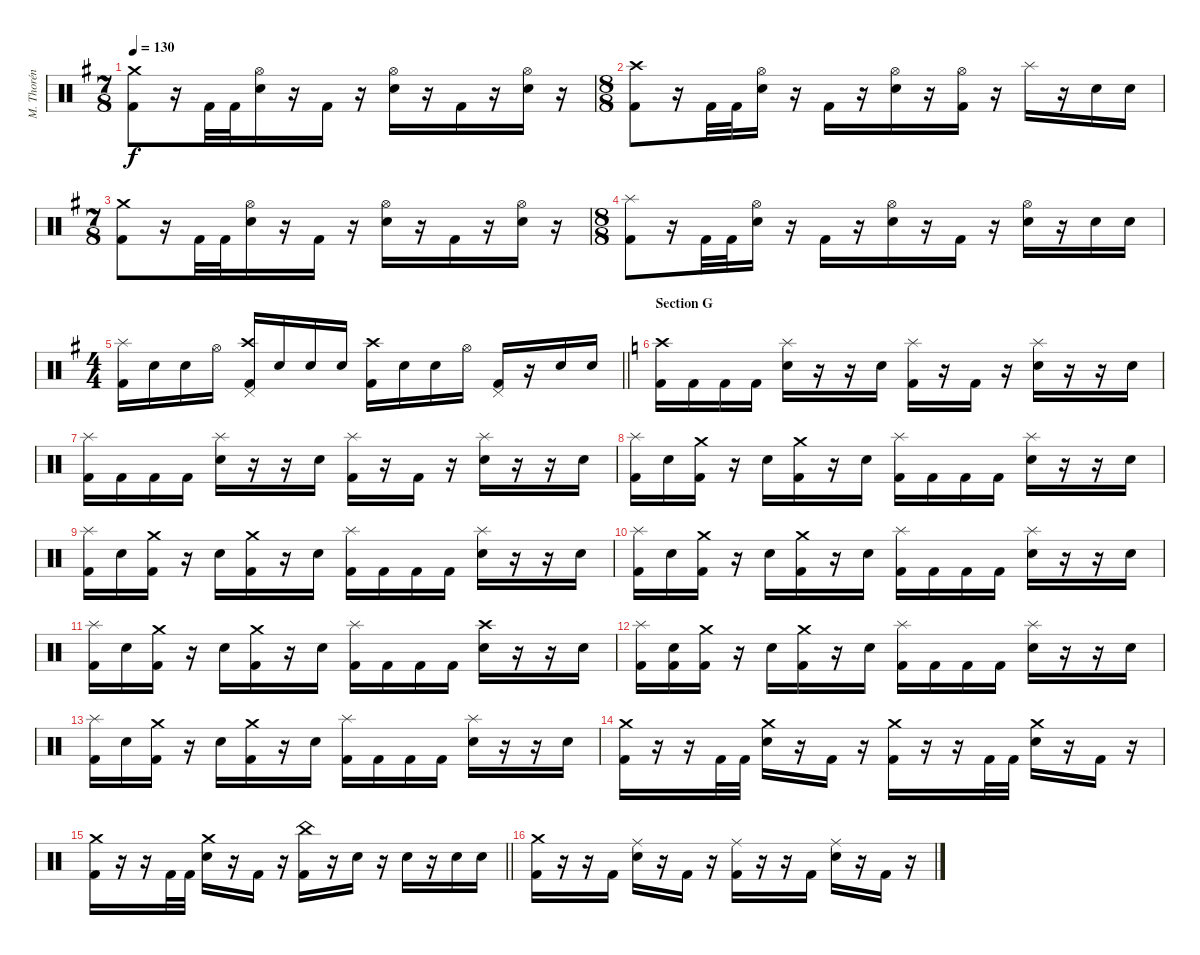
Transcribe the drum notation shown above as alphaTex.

\track ("M. Thorén (Drums)" "M. Thorén ") {instrument percussion}
\staff {score}
\articulation defaults
\ts (7 8)
\tempo 130
\clef neutral
\ks eminor
("Crash medium (hit)" "Kick (hit) 2").8{dy f} r.16 "Kick (hit) 2".32 "Kick (hit) 2".32 ("Hi-Hat (open)" "Electric Snare (hit)").16 r.16 "Kick (hit) 2".16 r.16 ("Hi-Hat (open)" "Electric Snare (hit)").16 r.16 "Kick (hit) 2".16 r.16 ("Hi-Hat (open)" "Electric Snare (hit)").16 r.16 |
\ts (8 8)
("Crash high (hit)" "Kick (hit) 2").8 r.16 "Kick (hit) 2".32 "Kick (hit) 2".32 ("Hi-Hat (open)" "Electric Snare (hit)").16 r.16 "Kick (hit) 2".16 r.16 ("Hi-Hat (open)" "Electric Snare (hit)").16 r.16 ("Hi-Hat (open)" "Kick (hit) 2").16 r.16 "Splash (hit)".16 r.16 "Electric Snare (hit)".16 "Electric Snare (hit)".16 |
\ts (7 8)
("Crash medium (hit)" "Kick (hit) 2").8 r.16 "Kick (hit) 2".32 "Kick (hit) 2".32 ("Hi-Hat (open)" "Electric Snare (hit)").16 r.16 "Kick (hit) 2".16 r.16 ("Hi-Hat (open)" "Electric Snare (hit)").16 r.16 "Kick (hit) 2".16 r.16 ("Hi-Hat (open)" "Electric Snare (hit)").16 r.16 |
\ts (8 8)
("Splash (hit)" "Kick (hit) 2").8 r.16 "Kick (hit) 2".32 "Kick (hit) 2".32 ("Hi-Hat (open)" "Electric Snare (hit)").16 r.16 "Kick (hit) 2".16 r.16 ("Hi-Hat (open)" "Electric Snare (hit)").16 r.16 "Kick (hit) 2".16 r.16 ("Hi-Hat (open)" "Electric Snare (hit)").16 r.16 "Electric Snare (hit)".16 "Electric Snare (hit)".16 |
\ts (4 4)
\barLineRight lightlight
("Splash (hit)" "Kick (hit) 2").16 "Electric Snare (hit)".16 "Electric Snare (hit)".16 "Hi-Hat (open)".16 ("Crash high (hit)" "Pedal Hi-Hat (hit)" "Kick (hit) 2").16 "Electric Snare (hit)".16 "Electric Snare (hit)".16 "Electric Snare (hit)".16 ("Crash high (hit)" "Kick (hit) 2").16 "Electric Snare (hit)".16 "Electric Snare (hit)".16 "Hi-Hat (open)".16 ("Pedal Hi-Hat (hit)" "Kick (hit) 2").16 r.16 "Electric Snare (hit)".16 "Electric Snare (hit)".16 |
\section ("" "Section G")
\ks aminor
("Crash high (hit)" "Kick (hit) 2").16 "Kick (hit) 2".16 "Kick (hit) 2".16 "Kick (hit) 2".16 ("Splash (hit)" "Electric Snare (hit)").16 r.16 r.16 "Electric Snare (hit)".16 ("Splash (hit)" "Kick (hit) 2").16 r.16 "Kick (hit) 2".16 r.16 ("Splash (hit)" "Electric Snare (hit)").16 r.16 r.16 "Electric Snare (hit)".16 |
("Splash (hit)" "Kick (hit) 2").16 "Kick (hit) 2".16 "Kick (hit) 2".16 "Kick (hit) 2".16 ("Splash (hit)" "Electric Snare (hit)").16 r.16 r.16 "Electric Snare (hit)".16 ("Splash (hit)" "Kick (hit) 2").16 r.16 "Kick (hit) 2".16 r.16 ("Splash (hit)" "Electric Snare (hit)").16 r.16 r.16 "Electric Snare (hit)".16 |
("Splash (hit)" "Kick (hit) 2").16 "Electric Snare (hit)".16 ("Crash medium (hit)" "Kick (hit) 2").16 r.16 "Electric Snare (hit)".16 ("Crash medium (hit)" "Kick (hit) 2").16 r.16 "Electric Snare (hit)".16 ("Splash (hit)" "Kick (hit) 2").16 "Kick (hit) 2".16 "Kick (hit) 2".16 "Kick (hit) 2".16 ("Splash (hit)" "Electric Snare (hit)").16 r.16 r.16 "Electric Snare (hit)".16 |
("Splash (hit)" "Kick (hit) 2").16 "Electric Snare (hit)".16 ("Crash medium (hit)" "Kick (hit) 2").16 r.16 "Electric Snare (hit)".16 ("Crash medium (hit)" "Kick (hit) 2").16 r.16 "Electric Snare (hit)".16 ("Splash (hit)" "Kick (hit) 2").16 "Kick (hit) 2".16 "Kick (hit) 2".16 "Kick (hit) 2".16 ("Splash (hit)" "Electric Snare (hit)").16 r.16 r.16 "Electric Snare (hit)".16 |
("Splash (hit)" "Kick (hit) 2").16 "Electric Snare (hit)".16 ("Crash medium (hit)" "Kick (hit) 2").16 r.16 "Electric Snare (hit)".16 ("Crash medium (hit)" "Kick (hit) 2").16 r.16 "Electric Snare (hit)".16 ("Splash (hit)" "Kick (hit) 2").16 "Kick (hit) 2".16 "Kick (hit) 2".16 "Kick (hit) 2".16 ("Splash (hit)" "Electric Snare (hit)").16 r.16 r.16 "Electric Snare (hit)".16 |
("Splash (hit)" "Kick (hit) 2").16 "Electric Snare (hit)".16 ("Crash medium (hit)" "Kick (hit) 2").16 r.16 "Electric Snare (hit)".16 ("Crash medium (hit)" "Kick (hit) 2").16 r.16 "Electric Snare (hit)".16 ("Splash (hit)" "Kick (hit) 2").16 "Kick (hit) 2".16 "Kick (hit) 2".16 "Kick (hit) 2".16 ("Crash high (hit)" "Electric Snare (hit)").16 r.16 r.16 "Electric Snare (hit)".16 |
("Splash (hit)" "Kick (hit) 2").16 ("Electric Snare (hit)" "Kick (hit) 2").16 ("Crash medium (hit)" "Kick (hit) 2").16 r.16 "Electric Snare (hit)".16 ("Crash medium (hit)" "Kick (hit) 2").16 r.16 "Electric Snare (hit)".16 ("Splash (hit)" "Kick (hit) 2").16 "Kick (hit) 2".16 "Kick (hit) 2".16 "Kick (hit) 2".16 ("Splash (hit)" "Electric Snare (hit)").16 r.16 r.16 "Electric Snare (hit)".16 |
("Splash (hit)" "Kick (hit) 2").16 "Electric Snare (hit)".16 ("Crash medium (hit)" "Kick (hit) 2").16 r.16 "Electric Snare (hit)".16 ("Crash medium (hit)" "Kick (hit) 2").16 r.16 "Electric Snare (hit)".16 ("Splash (hit)" "Kick (hit) 2").16 "Kick (hit) 2".16 "Kick (hit) 2".16 "Kick (hit) 2".16 ("Splash (hit)" "Electric Snare (hit)").16 r.16 r.16 "Electric Snare (hit)".16 |
("Crash medium (hit)" "Kick (hit) 2").16 r.16 r.16 "Kick (hit) 2".32 "Kick (hit) 2".32 ("Crash medium (hit)" "Electric Snare (hit)").16 r.16 "Kick (hit) 2".16 r.16 ("Crash medium (hit)" "Kick (hit) 2").16 r.16 r.16 "Kick (hit) 2".32 "Kick (hit) 2".32 ("Crash medium (hit)" "Electric Snare (hit)").16 r.16 "Kick (hit) 2".16 r.16 |
\barLineRight lightlight
("Crash medium (hit)" "Kick (hit) 2").16 r.16 r.16 "Kick (hit) 2".32 "Kick (hit) 2".32 ("Crash medium (hit)" "Electric Snare (hit)").16 r.16 "Kick (hit) 2".16 r.16 ("China (hit)" "Kick (hit) 2").16 r.16 "Electric Snare (hit)".16 r.16 "Electric Snare (hit)".16 r.16 "Electric Snare (hit)".16 "Electric Snare (hit)".16 |
("Crash medium (hit)" "Kick (hit) 2").16 r.16 r.16 "Kick (hit) 2".16 ("Ride (middle)" "Electric Snare (hit)").16 r.16 "Kick (hit) 2".16 r.16 ("Ride (middle)" "Kick (hit) 2").16 r.16 r.16 "Kick (hit) 2".16 ("Ride (middle)" "Electric Snare (hit)").16 r.16 "Kick (hit) 2".16 r.16
